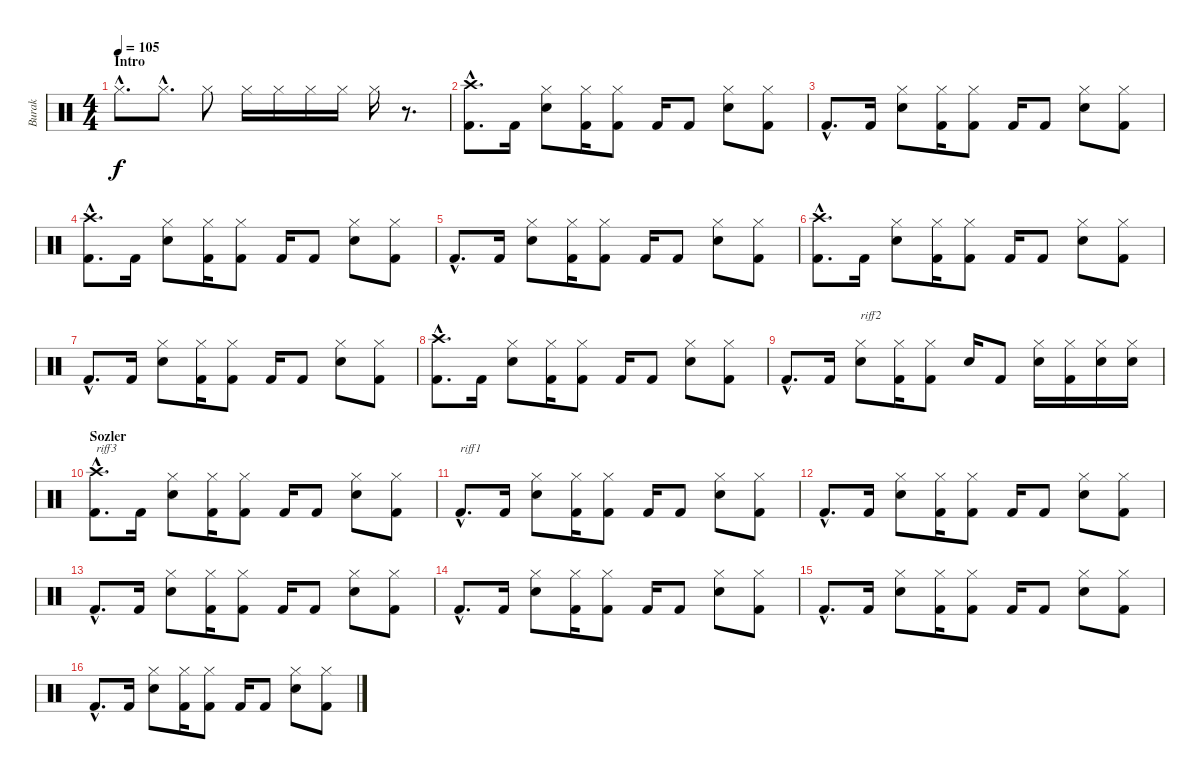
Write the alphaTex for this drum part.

\track ("Burak" "Burak") {instrument percussion}
\staff {score}
\articulation defaults
\ts (4 4)
\section ("" "Intro")
\tempo 105
\clef neutral
\ks c "Hi-Hat (closed)"{hac}.8{d dy f volume 6} "Hi-Hat (closed)"{hac}.8{d volume 10} "Hi-Hat (closed)".8 "Hi-Hat (closed)".16{volume 12} "Hi-Hat (closed)".16 "Hi-Hat (closed)".16{volume 13} "Hi-Hat (closed)".16 "Hi-Hat (closed)".16{volume 16}
r.8{d} |
("Kick (hit) 2"{hac} "Crash high (hit)"{hac}).8{d} "Kick (hit) 2".16 ("Electric Snare (hit)" "Hi-Hat (closed)").8 ("Kick (hit) 2" "Hi-Hat (closed)").16 ("Kick (hit) 2" "Hi-Hat (closed)").8 "Kick (hit) 2".16 "Kick (hit) 2".8 ("Electric Snare (hit)" "Hi-Hat (closed)").8 ("Kick (hit) 2" "Hi-Hat (closed)").8 |
"Kick (hit) 2"{hac}.8{d} "Kick (hit) 2".16 ("Electric Snare (hit)" "Hi-Hat (closed)").8 ("Kick (hit) 2" "Hi-Hat (closed)").16 ("Kick (hit) 2" "Hi-Hat (closed)").8 "Kick (hit) 2".16 "Kick (hit) 2".8 ("Electric Snare (hit)" "Hi-Hat (closed)").8 ("Kick (hit) 2" "Hi-Hat (closed)").8 |
("Kick (hit) 2"{hac} "Crash high (hit)"{hac}).8{d} "Kick (hit) 2".16 ("Electric Snare (hit)" "Hi-Hat (closed)").8 ("Kick (hit) 2" "Hi-Hat (closed)").16 ("Kick (hit) 2" "Hi-Hat (closed)").8 "Kick (hit) 2".16 "Kick (hit) 2".8 ("Electric Snare (hit)" "Hi-Hat (closed)").8 ("Kick (hit) 2" "Hi-Hat (closed)").8 |
"Kick (hit) 2"{hac}.8{d} "Kick (hit) 2".16 ("Electric Snare (hit)" "Hi-Hat (closed)").8 ("Kick (hit) 2" "Hi-Hat (closed)").16 ("Kick (hit) 2" "Hi-Hat (closed)").8 "Kick (hit) 2".16 "Kick (hit) 2".8 ("Electric Snare (hit)" "Hi-Hat (closed)").8 ("Kick (hit) 2" "Hi-Hat (closed)").8 |
("Kick (hit) 2"{hac} "Crash high (hit)"{hac}).8{d} "Kick (hit) 2".16 ("Electric Snare (hit)" "Hi-Hat (closed)").8 ("Kick (hit) 2" "Hi-Hat (closed)").16 ("Kick (hit) 2" "Hi-Hat (closed)").8 "Kick (hit) 2".16 "Kick (hit) 2".8 ("Electric Snare (hit)" "Hi-Hat (closed)").8 ("Kick (hit) 2" "Hi-Hat (closed)").8 |
"Kick (hit) 2"{hac}.8{d} "Kick (hit) 2".16 ("Electric Snare (hit)" "Hi-Hat (closed)").8 ("Kick (hit) 2" "Hi-Hat (closed)").16 ("Kick (hit) 2" "Hi-Hat (closed)").8 "Kick (hit) 2".16 "Kick (hit) 2".8 ("Electric Snare (hit)" "Hi-Hat (closed)").8 ("Kick (hit) 2" "Hi-Hat (closed)").8 |
("Kick (hit) 2"{hac} "Crash high (hit)"{hac}).8{d} "Kick (hit) 2".16 ("Electric Snare (hit)" "Hi-Hat (closed)").8 ("Kick (hit) 2" "Hi-Hat (closed)").16 ("Kick (hit) 2" "Hi-Hat (closed)").8 "Kick (hit) 2".16 "Kick (hit) 2".8 ("Electric Snare (hit)" "Hi-Hat (closed)").8 ("Kick (hit) 2" "Hi-Hat (closed)").8 |
"Kick (hit) 2"{hac}.8{d} "Kick (hit) 2".16 ("Electric Snare (hit)" "Hi-Hat (closed)").8{txt "riff2"} ("Kick (hit) 2" "Hi-Hat (closed)").16 ("Kick (hit) 2" "Hi-Hat (closed)").8 "Electric Snare (hit)".16 "Kick (hit) 2".8 ("Electric Snare (hit)" "Hi-Hat (closed)").16 ("Kick (hit) 2" "Hi-Hat (closed)").16 ("Electric Snare (hit)" "Hi-Hat (closed)").16 ("Electric Snare (hit)" "Hi-Hat (closed)").16 |
\section ("" "Sozler")
("Kick (hit) 2"{hac} "Crash high (hit)"{hac}).8{d txt "riff3"} "Kick (hit) 2".16 ("Electric Snare (hit)" "Hi-Hat (closed)").8 ("Kick (hit) 2" "Hi-Hat (closed)").16 ("Kick (hit) 2" "Hi-Hat (closed)").8 "Kick (hit) 2".16 "Kick (hit) 2".8 ("Electric Snare (hit)" "Hi-Hat (closed)").8 ("Kick (hit) 2" "Hi-Hat (closed)").8 |
"Kick (hit) 2"{hac}.8{d txt "riff1"} "Kick (hit) 2".16 ("Electric Snare (hit)" "Hi-Hat (closed)").8 ("Kick (hit) 2" "Hi-Hat (closed)").16 ("Kick (hit) 2" "Hi-Hat (closed)").8 "Kick (hit) 2".16 "Kick (hit) 2".8 ("Electric Snare (hit)" "Hi-Hat (closed)").8 ("Kick (hit) 2" "Hi-Hat (closed)").8 |
"Kick (hit) 2"{hac}.8{d} "Kick (hit) 2".16 ("Electric Snare (hit)" "Hi-Hat (closed)").8 ("Kick (hit) 2" "Hi-Hat (closed)").16 ("Kick (hit) 2" "Hi-Hat (closed)").8 "Kick (hit) 2".16 "Kick (hit) 2".8 ("Electric Snare (hit)" "Hi-Hat (closed)").8 ("Kick (hit) 2" "Hi-Hat (closed)").8 |
"Kick (hit) 2"{hac}.8{d} "Kick (hit) 2".16 ("Electric Snare (hit)" "Hi-Hat (closed)").8 ("Kick (hit) 2" "Hi-Hat (closed)").16 ("Kick (hit) 2" "Hi-Hat (closed)").8 "Kick (hit) 2".16 "Kick (hit) 2".8 ("Electric Snare (hit)" "Hi-Hat (closed)").8 ("Kick (hit) 2" "Hi-Hat (closed)").8 |
"Kick (hit) 2"{hac}.8{d} "Kick (hit) 2".16 ("Electric Snare (hit)" "Hi-Hat (closed)").8 ("Kick (hit) 2" "Hi-Hat (closed)").16 ("Kick (hit) 2" "Hi-Hat (closed)").8 "Kick (hit) 2".16 "Kick (hit) 2".8 ("Electric Snare (hit)" "Hi-Hat (closed)").8 ("Kick (hit) 2" "Hi-Hat (closed)").8 |
"Kick (hit) 2"{hac}.8{d} "Kick (hit) 2".16 ("Electric Snare (hit)" "Hi-Hat (closed)").8 ("Kick (hit) 2" "Hi-Hat (closed)").16 ("Kick (hit) 2" "Hi-Hat (closed)").8 "Kick (hit) 2".16 "Kick (hit) 2".8 ("Electric Snare (hit)" "Hi-Hat (closed)").8 ("Kick (hit) 2" "Hi-Hat (closed)").8 |
"Kick (hit) 2"{hac}.8{d} "Kick (hit) 2".16 ("Electric Snare (hit)" "Hi-Hat (closed)").8 ("Kick (hit) 2" "Hi-Hat (closed)").16 ("Kick (hit) 2" "Hi-Hat (closed)").8 "Kick (hit) 2".16 "Kick (hit) 2".8 ("Electric Snare (hit)" "Hi-Hat (closed)").8 ("Kick (hit) 2" "Hi-Hat (closed)").8
